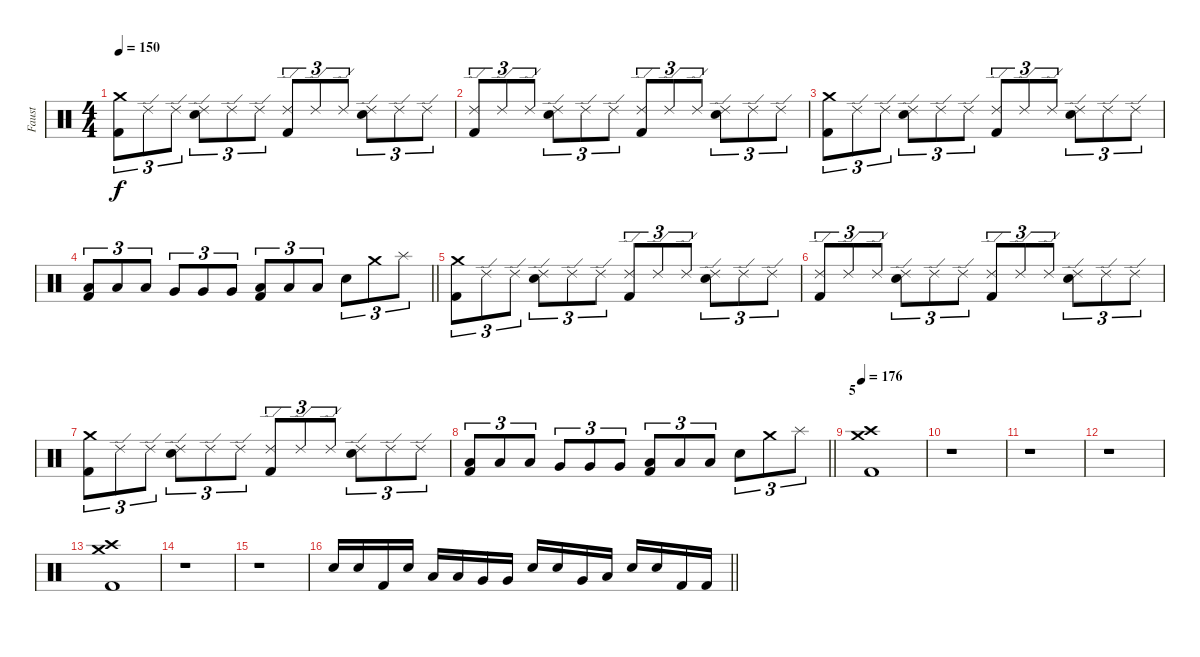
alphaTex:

\track ("Faust" "Faust") {instrument percussion}
\staff {score}
\articulation defaults
\ts (4 4)
\section ("" "")
\tempo 150
\clef neutral
\ks c
("Crash medium (hit)" "Kick (hit) 2").8{tu (3 2) dy f} "Ride (edge) 2".8{tu (3 2)} "Ride (edge) 2".8{tu (3 2)} ("Ride (edge) 2" "Electric Snare (hit)").8{tu (3 2)} "Ride (edge) 2".8{tu (3 2)} "Ride (edge) 2".8{tu (3 2)} ("Ride (edge) 2" "Kick (hit) 2").8{tu (3 2)} "Ride (edge) 2".8{tu (3 2)} "Ride (edge) 2".8{tu (3 2)} ("Ride (edge) 2" "Electric Snare (hit)").8{tu (3 2)} "Ride (edge) 2".8{tu (3 2)} "Ride (edge) 2".8{tu (3 2)} |
("Ride (edge) 2" "Kick (hit) 2").8{tu (3 2)} "Ride (edge) 2".8{tu (3 2)} "Ride (edge) 2".8{tu (3 2)} ("Ride (edge) 2" "Electric Snare (hit)").8{tu (3 2)} "Ride (edge) 2".8{tu (3 2)} "Ride (edge) 2".8{tu (3 2)} ("Ride (edge) 2" "Kick (hit) 2").8{tu (3 2)} "Ride (edge) 2".8{tu (3 2)} "Ride (edge) 2".8{tu (3 2)} ("Ride (edge) 2" "Electric Snare (hit)").8{tu (3 2)} "Ride (edge) 2".8{tu (3 2)} "Ride (edge) 2".8{tu (3 2)} |
("Crash medium (hit)" "Kick (hit) 2").8{tu (3 2)} "Ride (edge) 2".8{tu (3 2)} "Ride (edge) 2".8{tu (3 2)} ("Ride (edge) 2" "Electric Snare (hit)").8{tu (3 2)} "Ride (edge) 2".8{tu (3 2)} "Ride (edge) 2".8{tu (3 2)} ("Ride (edge) 2" "Kick (hit) 2").8{tu (3 2)} "Ride (edge) 2".8{tu (3 2)} "Ride (edge) 2".8{tu (3 2)} ("Ride (edge) 2" "Electric Snare (hit)").8{tu (3 2)} "Ride (edge) 2".8{tu (3 2)} "Ride (edge) 2".8{tu (3 2)} |
\barLineRight lightlight
("Low Tom (hit)" "Kick (hit) 2").8{tu (3 2)} "Low Tom (hit)".8{tu (3 2)} "Low Tom (hit)".8{tu (3 2)} "Very Low Tom (hit)".8{tu (3 2)} "Very Low Tom (hit)".8{tu (3 2)} "Very Low Tom (hit)".8{tu (3 2)} ("Low Floor Tom (hit)" "Kick (hit) 2").8{tu (3 2)} "Low Floor Tom (hit)".8{tu (3 2)} "Low Floor Tom (hit)".8{tu (3 2)} "Electric Snare (hit)".8{tu (3 2)} "Crash medium (hit)".8{tu (3 2)} "Splash (hit)".8{tu (3 2)} |
("Crash medium (hit)" "Kick (hit) 2").8{tu (3 2)} "Ride (edge) 2".8{tu (3 2)} "Ride (edge) 2".8{tu (3 2)} ("Ride (edge) 2" "Electric Snare (hit)").8{tu (3 2)} "Ride (edge) 2".8{tu (3 2)} "Ride (edge) 2".8{tu (3 2)} ("Ride (edge) 2" "Kick (hit) 2").8{tu (3 2)} "Ride (edge) 2".8{tu (3 2)} "Ride (edge) 2".8{tu (3 2)} ("Ride (edge) 2" "Electric Snare (hit)").8{tu (3 2)} "Ride (edge) 2".8{tu (3 2)} "Ride (edge) 2".8{tu (3 2)} |
("Ride (edge) 2" "Kick (hit) 2").8{tu (3 2)} "Ride (edge) 2".8{tu (3 2)} "Ride (edge) 2".8{tu (3 2)} ("Ride (edge) 2" "Electric Snare (hit)").8{tu (3 2)} "Ride (edge) 2".8{tu (3 2)} "Ride (edge) 2".8{tu (3 2)} ("Ride (edge) 2" "Kick (hit) 2").8{tu (3 2)} "Ride (edge) 2".8{tu (3 2)} "Ride (edge) 2".8{tu (3 2)} ("Ride (edge) 2" "Electric Snare (hit)").8{tu (3 2)} "Ride (edge) 2".8{tu (3 2)} "Ride (edge) 2".8{tu (3 2)} |
("Crash medium (hit)" "Kick (hit) 2").8{tu (3 2)} "Ride (edge) 2".8{tu (3 2)} "Ride (edge) 2".8{tu (3 2)} ("Ride (edge) 2" "Electric Snare (hit)").8{tu (3 2)} "Ride (edge) 2".8{tu (3 2)} "Ride (edge) 2".8{tu (3 2)} ("Ride (edge) 2" "Kick (hit) 2").8{tu (3 2)} "Ride (edge) 2".8{tu (3 2)} "Ride (edge) 2".8{tu (3 2)} ("Ride (edge) 2" "Electric Snare (hit)").8{tu (3 2)} "Ride (edge) 2".8{tu (3 2)} "Ride (edge) 2".8{tu (3 2)} |
\barLineRight lightlight
("Low Tom (hit)" "Kick (hit) 2").8{tu (3 2)} "Low Tom (hit)".8{tu (3 2)} "Low Tom (hit)".8{tu (3 2)} "Very Low Tom (hit)".8{tu (3 2)} "Very Low Tom (hit)".8{tu (3 2)} "Very Low Tom (hit)".8{tu (3 2)} ("Low Floor Tom (hit)" "Kick (hit) 2").8{tu (3 2)} "Low Floor Tom (hit)".8{tu (3 2)} "Low Floor Tom (hit)".8{tu (3 2)} "Electric Snare (hit)".8{tu (3 2)} "Crash medium (hit)".8{tu (3 2)} "Splash (hit)".8{tu (3 2)} |
\section ("" "5")
\tempo 176
("Crash medium (hit)" "Crash high (hit)" "Kick (hit) 2").1 |
r.1 |
r.1 |
r.1 |
("Crash medium (hit)" "Crash high (hit)" "Kick (hit) 2").1 |
r.1 |
r.1 |
\barLineRight lightlight "Electric Snare (hit)".16 "Electric Snare (hit)".16 "Kick (hit) 2".16 "Electric Snare (hit)".16 "Low Tom (hit)".16 "Low Tom (hit)".16 "Very Low Tom (hit)".16 "Very Low Tom (hit)".16 "Electric Snare (hit)".16 "Electric Snare (hit)".16 "Very Low Tom (hit)".16 "Low Floor Tom (hit)".16 "Electric Snare (hit)".16 "Electric Snare (hit)".16 "Kick (hit) 2".16 "Kick (hit) 2".16
